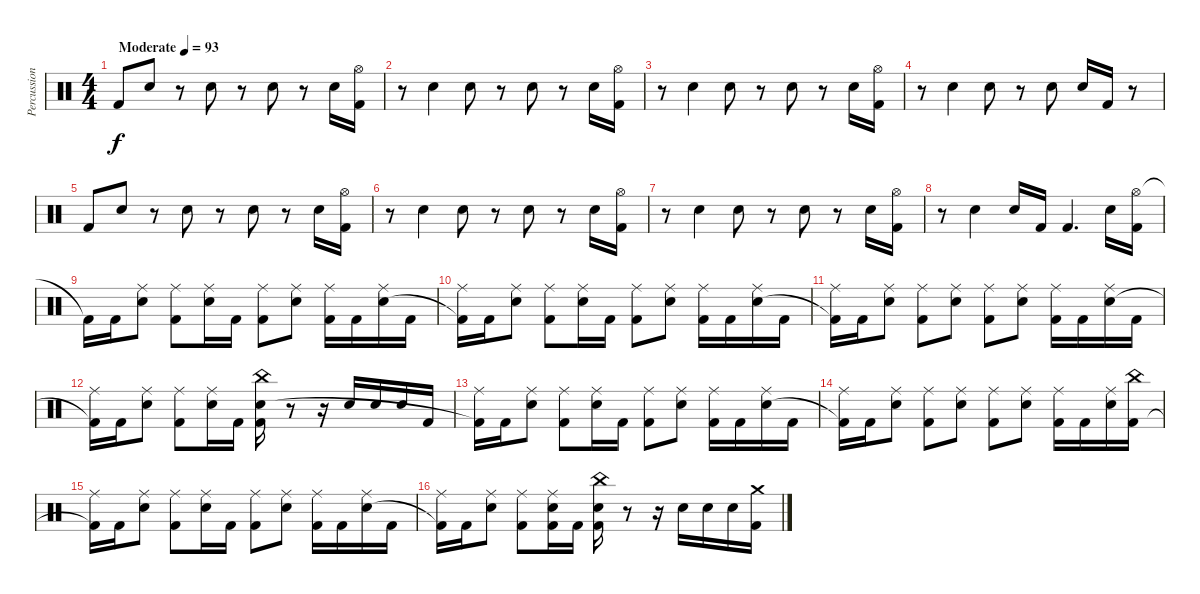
\track ("Percussion" "Percussion") {instrument percussion}
\staff {score}
\articulation defaults
\ts (4 4)
\tempo (93 "Moderate")
\clef neutral
\ks c "Kick (hit) 2".8{dy f} "Electric Snare (hit)".8
r.8 "Electric Snare (hit)".8 r.8 "Electric Snare (hit)".8 r.8 "Electric Snare (hit)".16 ("Hi-Hat (open)" "Kick (hit) 2").16 |
r.8 "Electric Snare (hit)".4 "Electric Snare (hit)".8 r.8 "Electric Snare (hit)".8 r.8 "Electric Snare (hit)".16 ("Hi-Hat (open)" "Kick (hit) 2").16 |
r.8 "Electric Snare (hit)".4 "Electric Snare (hit)".8 r.8 "Electric Snare (hit)".8 r.8 "Electric Snare (hit)".16 ("Hi-Hat (open)" "Kick (hit) 2").16 |
r.8 "Electric Snare (hit)".4 "Electric Snare (hit)".8 r.8 "Electric Snare (hit)".8 "Electric Snare (hit)".16 "Kick (hit) 2".16 r.8 |
"Kick (hit) 2".8 "Electric Snare (hit)".8 r.8 "Electric Snare (hit)".8 r.8 "Electric Snare (hit)".8 r.8 "Electric Snare (hit)".16 ("Hi-Hat (open)" "Kick (hit) 2").16 |
r.8 "Electric Snare (hit)".4 "Electric Snare (hit)".8 r.8 "Electric Snare (hit)".8 r.8 "Electric Snare (hit)".16 ("Hi-Hat (open)" "Kick (hit) 2").16 |
r.8 "Electric Snare (hit)".4 "Electric Snare (hit)".8 r.8 "Electric Snare (hit)".8 r.8 "Electric Snare (hit)".16 ("Hi-Hat (open)" "Kick (hit) 2").16 |
r.8 "Electric Snare (hit)".4 "Electric Snare (hit)".16 "Kick (hit) 2".16 "Kick (hit) 2".4{d} "Electric Snare (hit)".16 ("Hi-Hat (open)" "Kick (hit) 2").16 |
"Kick (hit) 2"{t}.16 "Kick (hit) 2".16 ("Ride (middle)" "Electric Snare (hit)").8 ("Ride (middle)" "Kick (hit) 2").8 ("Ride (middle)" "Electric Snare (hit)").16 "Kick (hit) 2".16 ("Ride (middle)" "Kick (hit) 2").8 ("Ride (middle)" "Electric Snare (hit)").8 ("Ride (middle)" "Kick (hit) 2").16 "Kick (hit) 2".16 ("Ride (middle)" "Electric Snare (hit)").16 "Kick (hit) 2".16 |
("Ride (middle)" "Kick (hit) 2"{t}).16 "Kick (hit) 2".16 ("Ride (middle)" "Electric Snare (hit)").8 ("Ride (middle)" "Kick (hit) 2").8 ("Ride (middle)" "Electric Snare (hit)").16 "Kick (hit) 2".16 ("Ride (middle)" "Kick (hit) 2").8 ("Ride (middle)" "Electric Snare (hit)").8 ("Ride (middle)" "Kick (hit) 2").16 "Kick (hit) 2".16 ("Ride (middle)" "Electric Snare (hit)").16 "Kick (hit) 2".16 |
("Ride (middle)" "Kick (hit) 2"{t}).16 "Kick (hit) 2".16 ("Ride (middle)" "Electric Snare (hit)").8 ("Ride (middle)" "Kick (hit) 2").8 ("Ride (middle)" "Electric Snare (hit)").8 ("Ride (middle)" "Kick (hit) 2").8 ("Ride (middle)" "Electric Snare (hit)").8 ("Ride (middle)" "Kick (hit) 2").16 "Kick (hit) 2".16 ("Ride (middle)" "Electric Snare (hit)").16 "Kick (hit) 2".16 |
("Ride (middle)" "Kick (hit) 2"{t}).16 "Kick (hit) 2".16 ("Ride (middle)" "Electric Snare (hit)").8 ("Ride (middle)" "Kick (hit) 2").8 ("Ride (middle)" "Electric Snare (hit)").16 "Kick (hit) 2".16 ("China (hit)" "Electric Snare (hit)" "Kick (hit) 2").16 r.8 r.16 "Electric Snare (hit)".16 "Electric Snare (hit)".16 "Electric Snare (hit)".16 "Kick (hit) 2".16 |
("Ride (middle)" "Kick (hit) 2"{t}).16 "Kick (hit) 2".16 ("Ride (middle)" "Electric Snare (hit)").8 ("Ride (middle)" "Kick (hit) 2").8 ("Ride (middle)" "Electric Snare (hit)").16 "Kick (hit) 2".16 ("Ride (middle)" "Kick (hit) 2").8 ("Ride (middle)" "Electric Snare (hit)").8 ("Ride (middle)" "Kick (hit) 2").16 "Kick (hit) 2".16 ("Ride (middle)" "Electric Snare (hit)").16 "Kick (hit) 2".16 |
("Ride (middle)" "Kick (hit) 2"{t}).16 "Kick (hit) 2".16 ("Ride (middle)" "Electric Snare (hit)").8 ("Ride (middle)" "Kick (hit) 2").8 ("Ride (middle)" "Electric Snare (hit)").8 ("Ride (middle)" "Kick (hit) 2").8 ("Ride (middle)" "Electric Snare (hit)").8 ("Ride (middle)" "Kick (hit) 2").16 "Kick (hit) 2".16 ("Ride (middle)" "Electric Snare (hit)").16 ("China (hit)" "Kick (hit) 2").16 |
("Ride (middle)" "Kick (hit) 2"{t}).16 "Kick (hit) 2".16 ("Ride (middle)" "Electric Snare (hit)").8 ("Ride (middle)" "Kick (hit) 2").8 ("Ride (middle)" "Electric Snare (hit)").16 "Kick (hit) 2".16 ("Ride (middle)" "Kick (hit) 2").8 ("Ride (middle)" "Electric Snare (hit)").8 ("Ride (middle)" "Kick (hit) 2").16 "Kick (hit) 2".16 ("Ride (middle)" "Electric Snare (hit)").16 "Kick (hit) 2".16 |
("Ride (middle)" "Kick (hit) 2"{t}).16 "Kick (hit) 2".16 ("Ride (middle)" "Electric Snare (hit)").8 ("Ride (middle)" "Kick (hit) 2").8 ("Ride (middle)" "Electric Snare (hit)" "Kick (hit) 2").16 "Kick (hit) 2".16 ("China (hit)" "Electric Snare (hit)" "Kick (hit) 2").16 r.8 r.16 "Electric Snare (hit)".16 "Electric Snare (hit)".16 "Electric Snare (hit)".16 ("Crash medium (hit)" "Kick (hit) 2").16
